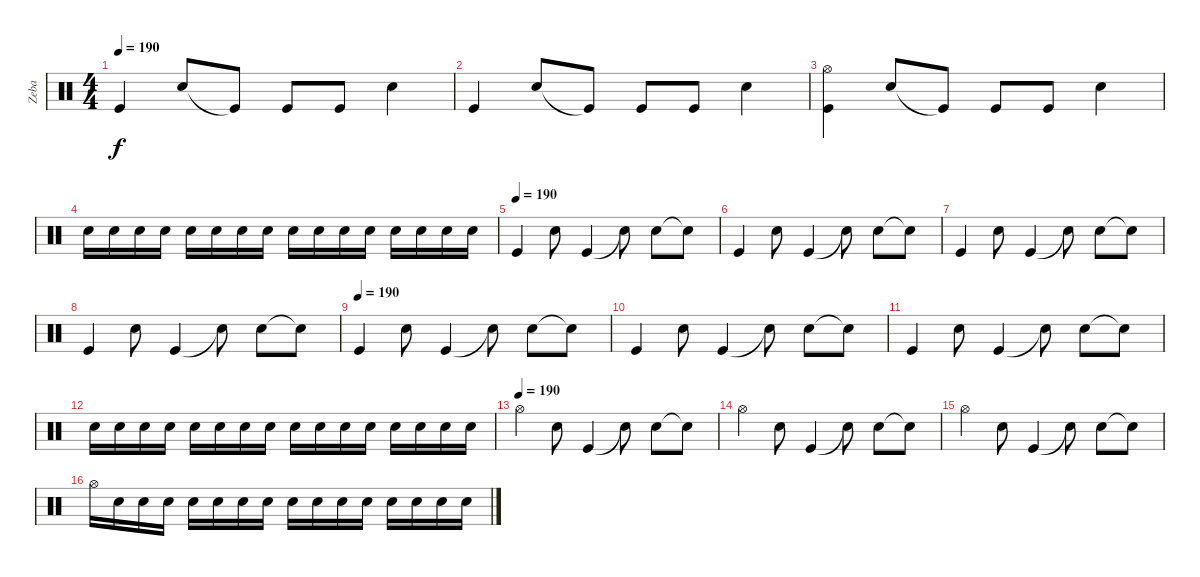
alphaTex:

\track ("Zeba" "Zeba") {instrument percussion}
\staff {score}
\articulation defaults
\ts (4 4)
\tempo 190
\clef neutral
\ks c "Kick (hit)".4{dy f} "Snare (hit) 2".8 "Kick (hit)"{t}.8 "Kick (hit)".8 "Kick (hit)".8 "Snare (hit) 2".4
|
"Kick (hit)".4 "Snare (hit) 2".8 "Kick (hit)"{t}.8 "Kick (hit)".8 "Kick (hit)".8 "Snare (hit) 2".4 |
("Hi-Hat (open)" "Kick (hit)").4 "Snare (hit) 2".8 "Kick (hit)"{t}.8 "Kick (hit)".8 "Kick (hit)".8 "Snare (hit) 2".4 |
"Electric Snare (hit)".16 "Electric Snare (hit)".16 "Electric Snare (hit)".16 "Electric Snare (hit)".16 "Electric Snare (hit)".16 "Electric Snare (hit)".16 "Electric Snare (hit)".16 "Electric Snare (hit)".16 "Snare (hit) 2".16 "Snare (hit) 2".16 "Snare (hit) 2".16 "Snare (hit) 2".16 "Snare (hit) 2".16 "Snare (hit) 2".16 "Snare (hit) 2".16 "Snare (hit) 2".16 |
\tempo (190)
"Kick (hit)".4 "Snare (hit) 2".8 "Kick (hit)".4 "Snare (hit) 2"{t}.8 "Snare (hit) 2".8 "Snare (hit)"{t}.8 |
"Kick (hit)".4 "Snare (hit) 2".8 "Kick (hit)".4 "Snare (hit) 2"{t}.8 "Snare (hit) 2".8 "Snare (hit)"{t}.8 |
"Kick (hit)".4 "Snare (hit) 2".8 "Kick (hit)".4 "Snare (hit) 2"{t}.8 "Snare (hit) 2".8 "Snare (hit)"{t}.8 |
"Kick (hit)".4 "Snare (hit) 2".8 "Kick (hit)".4 "Snare (hit) 2"{t}.8 "Snare (hit) 2".8 "Snare (hit)"{t}.8 |
\tempo (190)
"Kick (hit)".4 "Snare (hit) 2".8 "Kick (hit)".4 "Snare (hit) 2"{t}.8 "Snare (hit) 2".8 "Snare (hit)"{t}.8 |
"Kick (hit)".4 "Snare (hit) 2".8 "Kick (hit)".4 "Snare (hit) 2"{t}.8 "Snare (hit) 2".8 "Snare (hit)"{t}.8 |
"Kick (hit)".4 "Snare (hit) 2".8 "Kick (hit)".4 "Snare (hit) 2"{t}.8 "Snare (hit) 2".8 "Snare (hit)"{t}.8 |
"Electric Snare (hit)".16 "Electric Snare (hit)".16 "Electric Snare (hit)".16 "Electric Snare (hit)".16 "Electric Snare (hit)".16 "Electric Snare (hit)".16 "Electric Snare (hit)".16 "Electric Snare (hit)".16 "Snare (hit) 2".16 "Snare (hit) 2".16 "Snare (hit) 2".16 "Snare (hit) 2".16 "Snare (hit) 2".16 "Snare (hit) 2".16 "Snare (hit) 2".16 "Snare (hit) 2".16 |
\tempo (190)
"Hi-Hat (open)".4 "Snare (hit) 2".8 "Kick (hit)".4 "Snare (hit) 2"{t}.8 "Snare (hit) 2".8 "Snare (hit)"{t}.8 |
"Hi-Hat (open)".4 "Snare (hit) 2".8 "Kick (hit)".4 "Snare (hit) 2"{t}.8 "Snare (hit) 2".8 "Snare (hit)"{t}.8 |
"Hi-Hat (open)".4 "Snare (hit) 2".8 "Kick (hit)".4 "Snare (hit) 2"{t}.8 "Snare (hit) 2".8 "Snare (hit)"{t}.8 |
"Hi-Hat (open)".16 "Electric Snare (hit)".16 "Electric Snare (hit)".16 "Electric Snare (hit)".16 "Electric Snare (hit)".16 "Electric Snare (hit)".16 "Electric Snare (hit)".16 "Electric Snare (hit)".16 "Snare (hit) 2".16 "Snare (hit) 2".16 "Snare (hit) 2".16 "Snare (hit) 2".16 "Snare (hit) 2".16 "Snare (hit) 2".16 "Snare (hit) 2".16 "Snare (hit) 2".16
